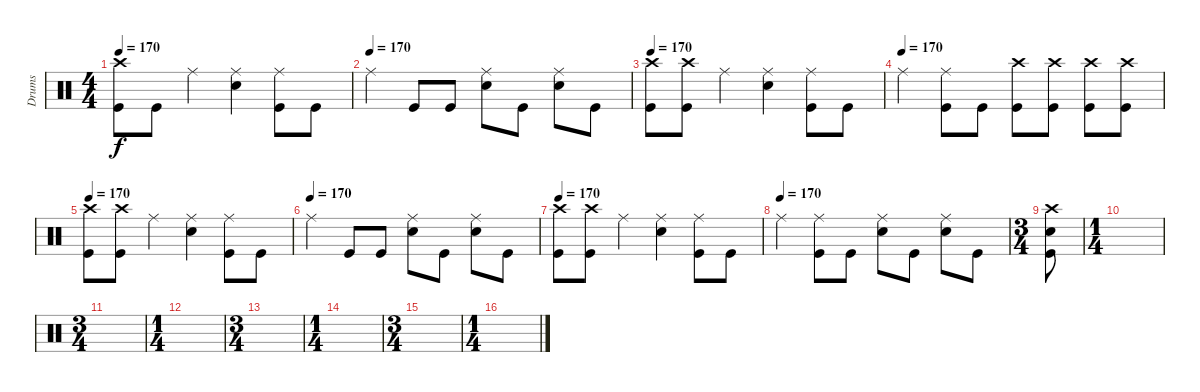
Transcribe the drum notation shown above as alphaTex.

\track ("Drums" "Drums") {instrument percussion}
\staff {score}
\articulation defaults
\ts (4 4)
\tempo 170
\clef neutral
\ks c
("Crash high (hit)" "Kick (hit)").8{dy f} "Kick (hit)".8 "Ride (middle)".4 ("Ride (middle)" "Electric Snare (hit)").4 ("Ride (middle)" "Kick (hit)").8 "Kick (hit)".8 |
\tempo (170)
"Ride (middle)".4 "Kick (hit)".8 "Kick (hit)".8 ("Ride (middle)" "Electric Snare (hit)").8 "Kick (hit)".8 ("Ride (middle)" "Electric Snare (hit)").8 "Kick (hit)".8 |
\tempo 170
("Crash high (hit)" "Kick (hit)").8 ("Crash high (hit)" "Kick (hit)").8 "Ride (middle)".4 ("Ride (middle)" "Electric Snare (hit)").4 ("Ride (middle)" "Kick (hit)").8 "Kick (hit)".8 |
\tempo (170)
"Ride (middle)".4 ("Ride (middle)" "Kick (hit)").8 "Kick (hit)".8 ("Crash high (hit)" "Kick (hit)").8 ("Crash high (hit)" "Kick (hit)").8 ("Crash high (hit)" "Kick (hit)").8 ("Crash high (hit)" "Kick (hit)").8 |
\tempo 170
("Crash high (hit)" "Kick (hit)").8 ("Crash high (hit)" "Kick (hit)").8 "Ride (middle)".4 ("Ride (middle)" "Electric Snare (hit)").4 ("Ride (middle)" "Kick (hit)").8 "Kick (hit)".8 |
\tempo (170)
"Ride (middle)".4 "Kick (hit)".8 "Kick (hit)".8 ("Ride (middle)" "Electric Snare (hit)").8 "Kick (hit)".8 ("Ride (middle)" "Electric Snare (hit)").8 "Kick (hit)".8 |
\tempo 170
("Crash high (hit)" "Kick (hit)").8 ("Crash high (hit)" "Kick (hit)").8 "Ride (middle)".4 ("Ride (middle)" "Electric Snare (hit)").4 ("Ride (middle)" "Kick (hit)").8 "Kick (hit)".8 |
\tempo (170)
"Ride (middle)".4 ("Ride (middle)" "Kick (hit)").8 "Kick (hit)".8 ("Ride (middle)" "Electric Snare (hit)").8 "Kick (hit)".8 ("Ride (middle)" "Electric Snare (hit)").8 "Kick (hit)".8 |
\ts (3 4)
("Crash high (hit)" "Electric Snare (hit)" "Kick (hit)").8 |
\ts (1 4)
|
\ts (3 4)
|
\ts (1 4)
|
\ts (3 4)
|
\ts (1 4)
|
\ts (3 4)
|
\ts (1 4)
